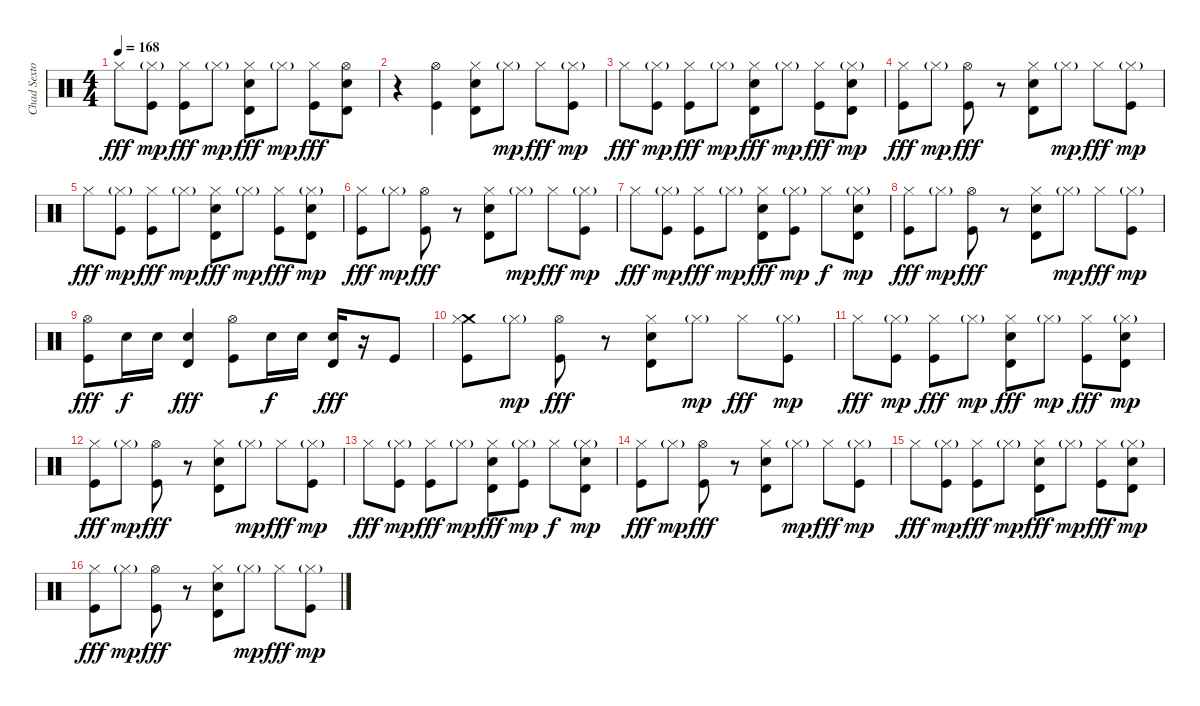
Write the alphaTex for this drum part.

\track ("Chad Sexton" "Chad Sexto") {instrument percussion}
\staff {score}
\articulation defaults
\ts (4 4)
\tempo 168
\clef neutral
\ks c "Hi-Hat (closed)".8{dy fff}
("Kick (hit)" "Hi-Hat (closed)"{g}).8{dy mp} ("Kick (hit)" "Hi-Hat (closed)").8{dy fff} "Hi-Hat (closed)"{g}.8{dy mp} ("Electric Snare (hit)" "Timbale high (hit)" "Hi-Hat (closed)").8{dy fff} "Hi-Hat (closed)"{g}.8{dy mp} ("Kick (hit)" "Hi-Hat (closed)").8{dy fff} ("Electric Snare (hit)" "Timbale high (hit)" "Hi-Hat (open)").8 |
r.4 ("Kick (hit)" "Hi-Hat (open)").4 ("Electric Snare (hit)" "Timbale high (hit)" "Hi-Hat (closed)").8 "Hi-Hat (closed)"{g}.8{dy mp} "Hi-Hat (closed)".8{dy fff} ("Kick (hit)" "Hi-Hat (closed)"{g}).8{dy mp} |
"Hi-Hat (closed)".8{dy fff} ("Kick (hit)" "Hi-Hat (closed)"{g}).8{dy mp} ("Kick (hit)" "Hi-Hat (closed)").8{dy fff} "Hi-Hat (closed)"{g}.8{dy mp} ("Electric Snare (hit)" "Timbale high (hit)" "Hi-Hat (closed)").8{dy fff} "Hi-Hat (closed)"{g}.8{dy mp} ("Kick (hit)" "Hi-Hat (closed)").8{dy fff} ("Electric Snare (hit)" "Timbale high (hit)" "Hi-Hat (closed)"{g}).8{dy mp} |
("Kick (hit)" "Hi-Hat (closed)").8{dy fff} "Hi-Hat (closed)"{g}.8{dy mp} ("Kick (hit)" "Hi-Hat (open)").8{dy fff} r.8 ("Electric Snare (hit)" "Timbale high (hit)" "Hi-Hat (closed)").8 "Hi-Hat (closed)"{g}.8{dy mp} "Hi-Hat (closed)".8{dy fff} ("Kick (hit)" "Hi-Hat (closed)"{g}).8{dy mp} |
"Hi-Hat (closed)".8{dy fff} ("Kick (hit)" "Hi-Hat (closed)"{g}).8{dy mp} ("Kick (hit)" "Hi-Hat (closed)").8{dy fff} "Hi-Hat (closed)"{g}.8{dy mp} ("Electric Snare (hit)" "Timbale high (hit)" "Hi-Hat (closed)").8{dy fff} "Hi-Hat (closed)"{g}.8{dy mp} ("Kick (hit)" "Hi-Hat (closed)").8{dy fff} ("Electric Snare (hit)" "Timbale high (hit)" "Hi-Hat (closed)"{g}).8{dy mp} |
("Kick (hit)" "Hi-Hat (closed)").8{dy fff} "Hi-Hat (closed)"{g}.8{dy mp} ("Kick (hit)" "Hi-Hat (open)").8{dy fff} r.8 ("Electric Snare (hit)" "Timbale high (hit)" "Hi-Hat (closed)").8 "Hi-Hat (closed)"{g}.8{dy mp} "Hi-Hat (closed)".8{dy fff} ("Kick (hit)" "Hi-Hat (closed)"{g}).8{dy mp} |
"Hi-Hat (closed)".8{dy fff} ("Kick (hit)" "Hi-Hat (closed)"{g}).8{dy mp} ("Kick (hit)" "Hi-Hat (closed)").8{dy fff} "Hi-Hat (closed)"{g}.8{dy mp} ("Electric Snare (hit)" "Timbale high (hit)" "Hi-Hat (closed)").8{dy fff} ("Kick (hit)" "Hi-Hat (closed)"{g}).8{dy mp} "Hi-Hat (closed)".8{dy f} ("Electric Snare (hit)" "Timbale high (hit)" "Hi-Hat (closed)"{g}).8{dy mp} |
("Kick (hit)" "Hi-Hat (closed)").8{dy fff} "Hi-Hat (closed)"{g}.8{dy mp} ("Kick (hit)" "Hi-Hat (open)").8{dy fff} r.8 ("Electric Snare (hit)" "Timbale high (hit)" "Hi-Hat (closed)").8 "Hi-Hat (closed)"{g}.8{dy mp} "Hi-Hat (closed)".8{dy fff} ("Kick (hit)" "Hi-Hat (closed)"{g}).8{dy mp} |
("Kick (hit)" "Hi-Hat (open)").8{dy fff} "Electric Snare (hit)".16{dy f} "Electric Snare (hit)".16 ("Electric Snare (hit)" "Timbale high (hit)").4{dy fff} ("Kick (hit)" "Hi-Hat (open)").8 "Electric Snare (hit)".16{dy f} "Electric Snare (hit)".16 ("Electric Snare (hit)" "Timbale high (hit)").16{dy fff} r.16 "Kick (hit)".8 |
("Crash medium (hit)" "Kick (hit)" "Hi-Hat (closed)").8 "Hi-Hat (closed)"{g}.8{dy mp} ("Kick (hit)" "Hi-Hat (open)").8{dy fff} r.8 ("Electric Snare (hit)" "Timbale high (hit)" "Hi-Hat (closed)").8 "Hi-Hat (closed)"{g}.8{dy mp} "Hi-Hat (closed)".8{dy fff} ("Kick (hit)" "Hi-Hat (closed)"{g}).8{dy mp} |
"Hi-Hat (closed)".8{dy fff} ("Kick (hit)" "Hi-Hat (closed)"{g}).8{dy mp} ("Kick (hit)" "Hi-Hat (closed)").8{dy fff} "Hi-Hat (closed)"{g}.8{dy mp} ("Electric Snare (hit)" "Timbale high (hit)" "Hi-Hat (closed)").8{dy fff} "Hi-Hat (closed)"{g}.8{dy mp} ("Kick (hit)" "Hi-Hat (closed)").8{dy fff} ("Electric Snare (hit)" "Timbale high (hit)" "Hi-Hat (closed)"{g}).8{dy mp} |
("Kick (hit)" "Hi-Hat (closed)").8{dy fff} "Hi-Hat (closed)"{g}.8{dy mp} ("Kick (hit)" "Hi-Hat (open)").8{dy fff} r.8 ("Electric Snare (hit)" "Timbale high (hit)" "Hi-Hat (closed)").8 "Hi-Hat (closed)"{g}.8{dy mp} "Hi-Hat (closed)".8{dy fff} ("Kick (hit)" "Hi-Hat (closed)"{g}).8{dy mp} |
"Hi-Hat (closed)".8{dy fff} ("Kick (hit)" "Hi-Hat (closed)"{g}).8{dy mp} ("Kick (hit)" "Hi-Hat (closed)").8{dy fff} "Hi-Hat (closed)"{g}.8{dy mp} ("Electric Snare (hit)" "Timbale high (hit)" "Hi-Hat (closed)").8{dy fff} ("Kick (hit)" "Hi-Hat (closed)"{g}).8{dy mp} "Hi-Hat (closed)".8{dy f} ("Electric Snare (hit)" "Timbale high (hit)" "Hi-Hat (closed)"{g}).8{dy mp} |
("Kick (hit)" "Hi-Hat (closed)").8{dy fff} "Hi-Hat (closed)"{g}.8{dy mp} ("Kick (hit)" "Hi-Hat (open)").8{dy fff} r.8 ("Electric Snare (hit)" "Timbale high (hit)" "Hi-Hat (closed)").8 "Hi-Hat (closed)"{g}.8{dy mp} "Hi-Hat (closed)".8{dy fff} ("Kick (hit)" "Hi-Hat (closed)"{g}).8{dy mp} |
"Hi-Hat (closed)".8{dy fff} ("Kick (hit)" "Hi-Hat (closed)"{g}).8{dy mp} ("Kick (hit)" "Hi-Hat (closed)").8{dy fff} "Hi-Hat (closed)"{g}.8{dy mp} ("Electric Snare (hit)" "Timbale high (hit)" "Hi-Hat (closed)").8{dy fff} "Hi-Hat (closed)"{g}.8{dy mp} ("Kick (hit)" "Hi-Hat (closed)").8{dy fff} ("Electric Snare (hit)" "Timbale high (hit)" "Hi-Hat (closed)"{g}).8{dy mp} |
("Kick (hit)" "Hi-Hat (closed)").8{dy fff} "Hi-Hat (closed)"{g}.8{dy mp} ("Kick (hit)" "Hi-Hat (open)").8{dy fff} r.8 ("Electric Snare (hit)" "Timbale high (hit)" "Hi-Hat (closed)").8 "Hi-Hat (closed)"{g}.8{dy mp} "Hi-Hat (closed)".8{dy fff} ("Kick (hit)" "Hi-Hat (closed)"{g}).8{dy mp}
